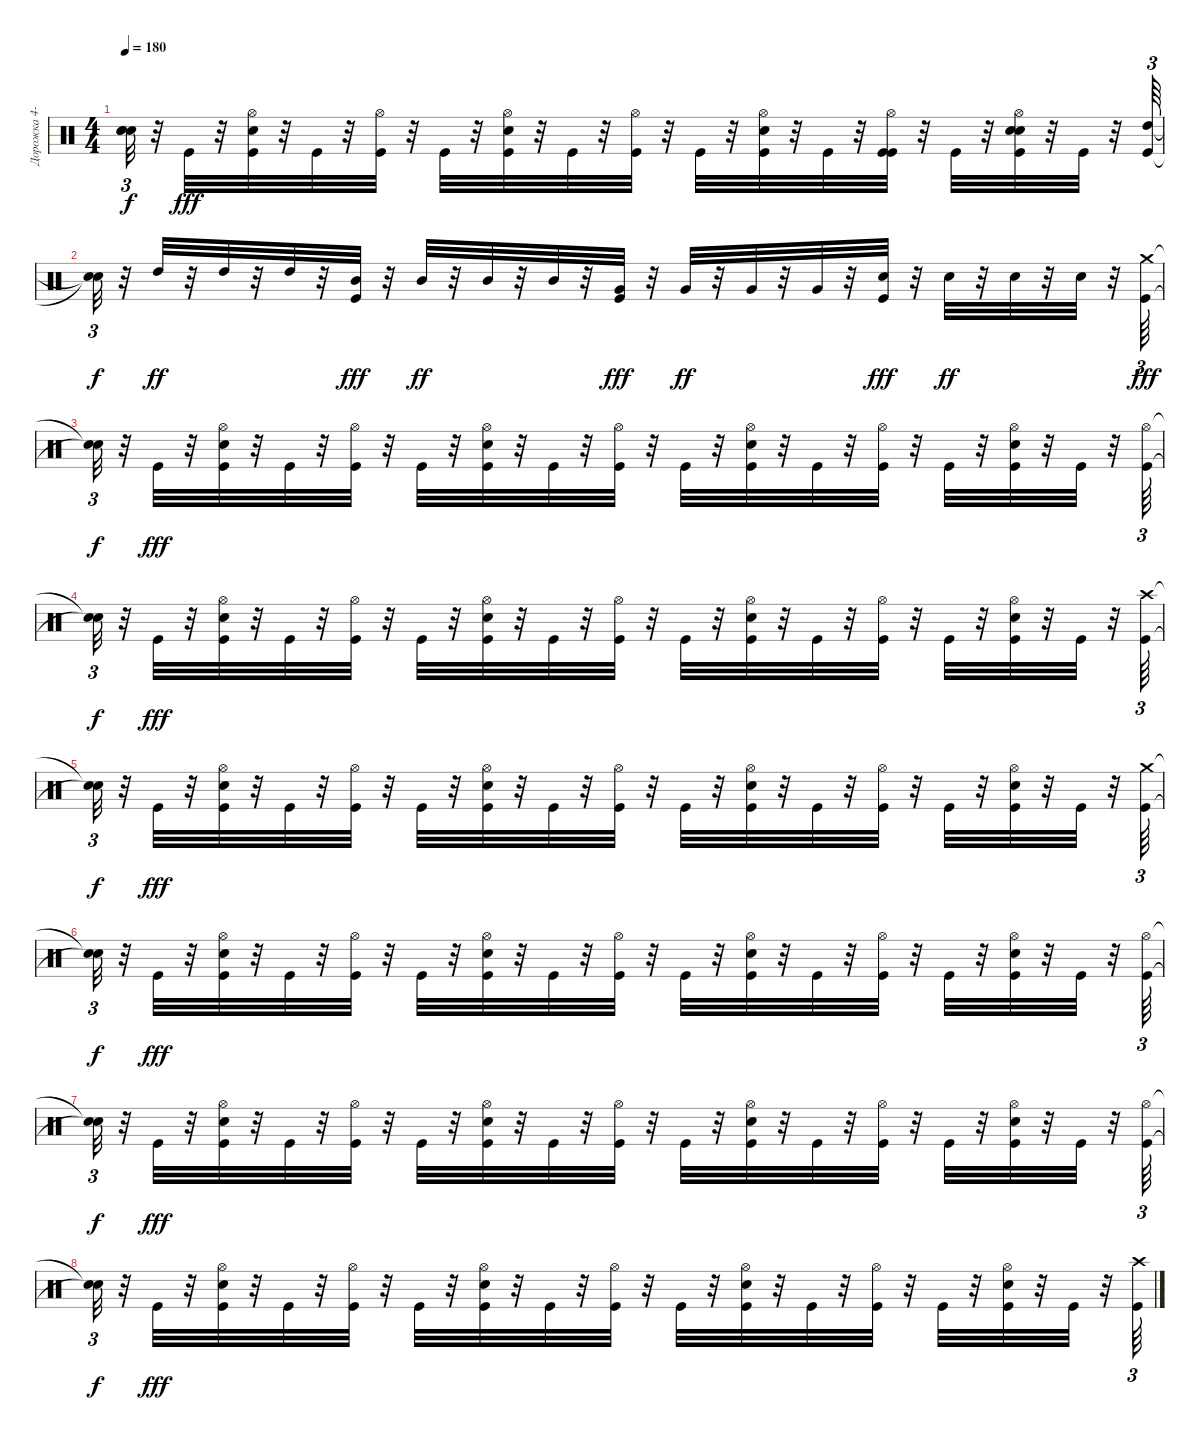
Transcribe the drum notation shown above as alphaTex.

\track ("Дорожка 4-10-11" "Дорожка 4-") {instrument percussion}
\staff {score}
\articulation defaults
\ts (4 4)
\tempo 180
\clef neutral
\ks c
("Snare (hit)"{t} "Snare (hit)"{t} "Snare (hit)"{t}).32{tu (3 2) dy f} r.32 "Kick (hit)".32{dy fff} r.32 ("Hi-Hat (open)" "Snare (hit) 2" "Kick (hit)").32 r.32 "Kick (hit)".32 r.32 ("Hi-Hat (open)" "Kick (hit)").32 r.32 "Kick (hit)".32 r.32 ("Snare (hit) 2" "Hi-Hat (open)" "Kick (hit)").32 r.32 "Kick (hit)".32 r.32 ("Hi-Hat (open)" "Kick (hit)").32 r.32 "Kick (hit)".32 r.32 ("Hi-Hat (open)" "Snare (hit) 2" "Kick (hit)").32 r.32 "Kick (hit)".32 r.32 ("Hi-Hat (open)" "Kick (hit)" "Kick (hit)").32 r.32 "Kick (hit)".32 r.32 ("Snare (hit) 2" "Hi-Hat (open)" "Snare (hit) 2" "Kick (hit)").32 r.32 "Kick (hit)".32 r.32 ("High Tom (hit)" "Kick (hit)").64{tu (3 2)} |
("Snare (hit)"{t} "Snare (hit)"{t}).32{tu (3 2) dy f} r.32 "High Tom (hit)".32{dy ff} r.32 "High Tom (hit)".32 r.32 "High Tom (hit)".32 r.32 ("Mid Tom (hit)" "Kick (hit)").32{dy fff} r.32 "Mid Tom (hit)".32{dy ff} r.32 "Mid Tom (hit)".32 r.32 "Mid Tom (hit)".32 r.32 ("Very Low Tom (hit)" "Kick (hit)").32{dy fff} r.32 "Very Low Tom (hit)".32{dy ff} r.32 "Very Low Tom (hit)".32 r.32 "Very Low Tom (hit)".32 r.32 ("Electric Snare (hit)" "Kick (hit)").32{dy fff} r.32 "Electric Snare (hit)".32{dy ff} r.32 "Electric Snare (hit)".32 r.32 "Electric Snare (hit)".32 r.32 ("Crash medium (hit)" "Kick (hit)").64{tu (3 2) dy fff} |
("Snare (hit)"{t} "Snare (hit)"{t}).32{tu (3 2) dy f} r.32 "Kick (hit)".32{dy fff} r.32 ("Hi-Hat (open)" "Snare (hit) 2" "Kick (hit)").32 r.32 "Kick (hit)".32 r.32 ("Hi-Hat (open)" "Kick (hit)").32 r.32 "Kick (hit)".32 r.32 ("Snare (hit) 2" "Hi-Hat (open)" "Kick (hit)").32 r.32 "Kick (hit)".32 r.32 ("Hi-Hat (open)" "Kick (hit)").32 r.32 "Kick (hit)".32 r.32 ("Hi-Hat (open)" "Snare (hit) 2" "Kick (hit)").32 r.32 "Kick (hit)".32 r.32 ("Hi-Hat (open)" "Kick (hit)").32 r.32 "Kick (hit)".32 r.32 ("Hi-Hat (open)" "Snare (hit) 2" "Kick (hit)").32 r.32 "Kick (hit)".32 r.32 ("Hi-Hat (open)" "Kick (hit)").64{tu (3 2)} |
("Snare (hit)"{t} "Snare (hit)"{t}).32{tu (3 2) dy f} r.32 "Kick (hit)".32{dy fff} r.32 ("Hi-Hat (open)" "Snare (hit) 2" "Kick (hit)").32 r.32 "Kick (hit)".32 r.32 ("Hi-Hat (open)" "Kick (hit)").32 r.32 "Kick (hit)".32 r.32 ("Snare (hit) 2" "Hi-Hat (open)" "Kick (hit)").32 r.32 "Kick (hit)".32 r.32 ("Hi-Hat (open)" "Kick (hit)").32 r.32 "Kick (hit)".32 r.32 ("Hi-Hat (open)" "Snare (hit) 2" "Kick (hit)").32 r.32 "Kick (hit)".32 r.32 ("Hi-Hat (open)" "Kick (hit)").32 r.32 "Kick (hit)".32 r.32 ("Hi-Hat (open)" "Snare (hit) 2" "Kick (hit)").32 r.32 "Kick (hit)".32 r.32 ("Crash high (hit)" "Kick (hit)").64{tu (3 2)} |
("Snare (hit)"{t} "Snare (hit)"{t}).32{tu (3 2) dy f} r.32 "Kick (hit)".32{dy fff} r.32 ("Hi-Hat (open)" "Snare (hit) 2" "Kick (hit)").32 r.32 "Kick (hit)".32 r.32 ("Hi-Hat (open)" "Kick (hit)").32 r.32 "Kick (hit)".32 r.32 ("Snare (hit) 2" "Hi-Hat (open)" "Kick (hit)").32 r.32 "Kick (hit)".32 r.32 ("Hi-Hat (open)" "Kick (hit)").32 r.32 "Kick (hit)".32 r.32 ("Hi-Hat (open)" "Snare (hit) 2" "Kick (hit)").32 r.32 "Kick (hit)".32 r.32 ("Hi-Hat (open)" "Kick (hit)").32 r.32 "Kick (hit)".32 r.32 ("Hi-Hat (open)" "Snare (hit) 2" "Kick (hit)").32 r.32 "Kick (hit)".32 r.32 ("Crash medium (hit)" "Kick (hit)").64{tu (3 2)} |
("Snare (hit)"{t} "Snare (hit)"{t}).32{tu (3 2) dy f} r.32 "Kick (hit)".32{dy fff} r.32 ("Hi-Hat (open)" "Snare (hit) 2" "Kick (hit)").32 r.32 "Kick (hit)".32 r.32 ("Hi-Hat (open)" "Kick (hit)").32 r.32 "Kick (hit)".32 r.32 ("Snare (hit) 2" "Hi-Hat (open)" "Kick (hit)").32 r.32 "Kick (hit)".32 r.32 ("Hi-Hat (open)" "Kick (hit)").32 r.32 "Kick (hit)".32 r.32 ("Hi-Hat (open)" "Snare (hit) 2" "Kick (hit)").32 r.32 "Kick (hit)".32 r.32 ("Hi-Hat (open)" "Kick (hit)").32 r.32 "Kick (hit)".32 r.32 ("Hi-Hat (open)" "Snare (hit) 2" "Kick (hit)").32 r.32 "Kick (hit)".32 r.32 ("Hi-Hat (open)" "Kick (hit)").64{tu (3 2)} |
("Snare (hit)"{t} "Snare (hit)"{t}).32{tu (3 2) dy f} r.32 "Kick (hit)".32{dy fff} r.32 ("Hi-Hat (open)" "Snare (hit) 2" "Kick (hit)").32 r.32 "Kick (hit)".32 r.32 ("Hi-Hat (open)" "Kick (hit)").32 r.32 "Kick (hit)".32 r.32 ("Snare (hit) 2" "Hi-Hat (open)" "Kick (hit)").32 r.32 "Kick (hit)".32 r.32 ("Hi-Hat (open)" "Kick (hit)").32 r.32 "Kick (hit)".32 r.32 ("Hi-Hat (open)" "Snare (hit) 2" "Kick (hit)").32 r.32 "Kick (hit)".32 r.32 ("Hi-Hat (open)" "Kick (hit)").32 r.32 "Kick (hit)".32 r.32 ("Hi-Hat (open)" "Snare (hit) 2" "Kick (hit)").32 r.32 "Kick (hit)".32 r.32 ("Hi-Hat (open)" "Kick (hit)").64{tu (3 2)} |
("Snare (hit)"{t} "Snare (hit)"{t}).32{tu (3 2) dy f} r.32 "Kick (hit)".32{dy fff} r.32 ("Hi-Hat (open)" "Snare (hit) 2" "Kick (hit)").32 r.32 "Kick (hit)".32 r.32 ("Hi-Hat (open)" "Kick (hit)").32 r.32 "Kick (hit)".32 r.32 ("Snare (hit) 2" "Hi-Hat (open)" "Kick (hit)").32 r.32 "Kick (hit)".32 r.32 ("Hi-Hat (open)" "Kick (hit)").32 r.32 "Kick (hit)".32 r.32 ("Hi-Hat (open)" "Snare (hit) 2" "Kick (hit)").32 r.32 "Kick (hit)".32 r.32 ("Hi-Hat (open)" "Kick (hit)").32 r.32 "Kick (hit)".32 r.32 ("Hi-Hat (open)" "Snare (hit) 2" "Kick (hit)").32 r.32 "Kick (hit)".32 r.32 ("Crash high (hit)" "Kick (hit)").64{tu (3 2)}
